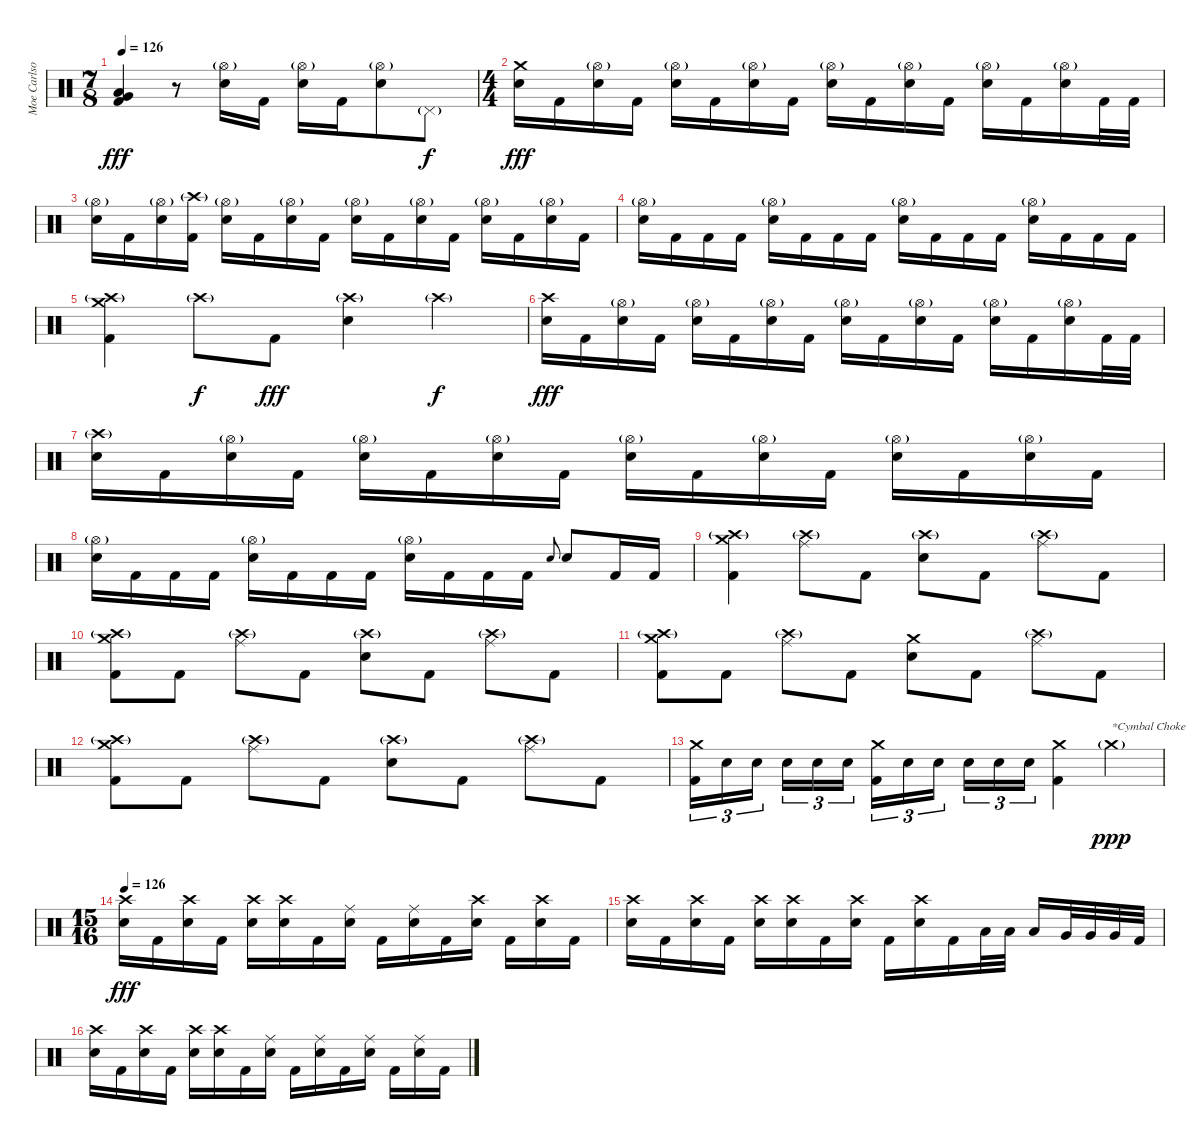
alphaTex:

\track ("Moe Carlson" "Moe Carlso") {instrument percussion}
\staff {score}
\articulation defaults
\ts (7 8)
\tempo 126
\clef neutral
\ks c
("Very Low Tom (hit)" "Low Floor Tom (hit)" "Kick (hit) 2").4{dy fff} r.8 ("Hi-Hat (open)"{g} "Electric Snare (hit)").16 "Kick (hit) 2".16 ("Hi-Hat (open)"{g} "Electric Snare (hit)").16 "Kick (hit) 2".16 ("Hi-Hat (open)"{g} "Electric Snare (hit)").8 "Pedal Hi-Hat (hit)"{g}.8{dy f} |
\ts (4 4)
("Crash medium (hit)" "Electric Snare (hit)").16{dy fff} "Kick (hit) 2".16 ("Hi-Hat (open)"{g} "Electric Snare (hit)").16 "Kick (hit) 2".16 ("Hi-Hat (open)"{g} "Electric Snare (hit)").16 "Kick (hit) 2".16 ("Hi-Hat (open)"{g} "Electric Snare (hit)").16 "Kick (hit) 2".16 ("Hi-Hat (open)"{g} "Electric Snare (hit)").16 "Kick (hit) 2".16 ("Hi-Hat (open)"{g} "Electric Snare (hit)").16 "Kick (hit) 2".16 ("Hi-Hat (open)"{g} "Electric Snare (hit)").16 "Kick (hit) 2".16 ("Hi-Hat (open)"{g} "Electric Snare (hit)").16 "Kick (hit) 2".32 "Kick (hit) 2".32 |
("Hi-Hat (open)"{g} "Electric Snare (hit)").16 "Kick (hit) 2".16 ("Hi-Hat (open)"{g} "Electric Snare (hit)").16 ("Crash high (hit)"{g} "Kick (hit) 2").16 ("Hi-Hat (open)"{g} "Electric Snare (hit)").16 "Kick (hit) 2".16 ("Hi-Hat (open)"{g} "Electric Snare (hit)").16 "Kick (hit) 2".16 ("Hi-Hat (open)"{g} "Electric Snare (hit)").16 "Kick (hit) 2".16 ("Hi-Hat (open)"{g} "Electric Snare (hit)").16 "Kick (hit) 2".16 ("Hi-Hat (open)"{g} "Electric Snare (hit)").16 "Kick (hit) 2".16 ("Hi-Hat (open)"{g} "Electric Snare (hit)").16 "Kick (hit) 2".16 |
("Hi-Hat (open)"{g} "Electric Snare (hit)").16 "Kick (hit) 2".16 "Kick (hit) 2".16 "Kick (hit) 2".16 ("Hi-Hat (open)"{g} "Electric Snare (hit)").16 "Kick (hit) 2".16 "Kick (hit) 2".16 "Kick (hit) 2".16 ("Hi-Hat (open)"{g} "Electric Snare (hit)").16 "Kick (hit) 2".16 "Kick (hit) 2".16 "Kick (hit) 2".16 ("Hi-Hat (open)"{g} "Electric Snare (hit)").16 "Kick (hit) 2".16 "Kick (hit) 2".16 "Kick (hit) 2".16 |
("Crash high (hit)"{g} "Crash medium (hit)" "Kick (hit) 2").4 "Crash high (hit)"{g}.8{dy f} "Kick (hit) 2".8{dy fff} ("Crash high (hit)"{g} "Electric Snare (hit)").4 "Crash high (hit)"{g}.4{dy f} |
("Crash high (hit)" "Electric Snare (hit)").16{dy fff} "Kick (hit) 2".16 ("Hi-Hat (open)"{g} "Electric Snare (hit)").16 "Kick (hit) 2".16 ("Hi-Hat (open)"{g} "Electric Snare (hit)").16 "Kick (hit) 2".16 ("Hi-Hat (open)"{g} "Electric Snare (hit)").16 "Kick (hit) 2".16 ("Hi-Hat (open)"{g} "Electric Snare (hit)").16 "Kick (hit) 2".16 ("Hi-Hat (open)"{g} "Electric Snare (hit)").16 "Kick (hit) 2".16 ("Hi-Hat (open)"{g} "Electric Snare (hit)").16 "Kick (hit) 2".16 ("Hi-Hat (open)"{g} "Electric Snare (hit)").16 "Kick (hit) 2".32 "Kick (hit) 2".32 |
("Crash high (hit)"{g} "Electric Snare (hit)").16 "Kick (hit) 2".16 ("Hi-Hat (open)"{g} "Electric Snare (hit)").16 "Kick (hit) 2".16 ("Hi-Hat (open)"{g} "Electric Snare (hit)").16 "Kick (hit) 2".16 ("Hi-Hat (open)"{g} "Electric Snare (hit)").16 "Kick (hit) 2".16 ("Hi-Hat (open)"{g} "Electric Snare (hit)").16 "Kick (hit) 2".16 ("Hi-Hat (open)"{g} "Electric Snare (hit)").16 "Kick (hit) 2".16 ("Hi-Hat (open)"{g} "Electric Snare (hit)").16 "Kick (hit) 2".16 ("Hi-Hat (open)"{g} "Electric Snare (hit)").16 "Kick (hit) 2".16 |
("Hi-Hat (open)"{g} "Electric Snare (hit)").16 "Kick (hit) 2".16 "Kick (hit) 2".16 "Kick (hit) 2".16 ("Hi-Hat (open)"{g} "Electric Snare (hit)").16 "Kick (hit) 2".16 "Kick (hit) 2".16 "Kick (hit) 2".16 ("Hi-Hat (open)"{g} "Electric Snare (hit)").16 "Kick (hit) 2".16 "Kick (hit) 2".16 "Kick (hit) 2".16 "Electric Snare (hit)".8{gr onbeat} "Electric Snare (hit)".8 "Kick (hit) 2".16 "Kick (hit) 2".16 |
("Crash high (hit)"{g} "Crash medium (hit)" "Kick (hit) 2").4 ("Crash high (hit)"{g} "Ride (middle)").8 "Kick (hit) 2".8 ("Crash high (hit)"{g} "Electric Snare (hit)").8 "Kick (hit) 2".8 ("Crash high (hit)"{g} "Ride (middle)").8 "Kick (hit) 2".8 |
("Crash high (hit)"{g} "Crash medium (hit)" "Kick (hit) 2").8 "Kick (hit) 2".8 ("Crash high (hit)"{g} "Ride (middle)").8 "Kick (hit) 2".8 ("Crash high (hit)"{g} "Electric Snare (hit)").8 "Kick (hit) 2".8 ("Crash high (hit)"{g} "Ride (middle)").8 "Kick (hit) 2".8 |
("Crash high (hit)"{g} "Crash medium (hit)" "Kick (hit) 2").8 "Kick (hit) 2".8 ("Crash high (hit)"{g} "Ride (middle)").8 "Kick (hit) 2".8 ("Crash medium (hit)" "Electric Snare (hit)").8 "Kick (hit) 2".8 ("Crash high (hit)"{g} "Ride (middle)").8 "Kick (hit) 2".8 |
("Crash high (hit)"{g} "Crash medium (hit)" "Kick (hit) 2").8 "Kick (hit) 2".8 ("Crash high (hit)"{g} "Ride (middle)").8 "Kick (hit) 2".8 ("Crash high (hit)"{g} "Electric Snare (hit)").8 "Kick (hit) 2".8 ("Crash high (hit)"{g} "Ride (middle)").8 "Kick (hit) 2".8 |
("Crash medium (hit)" "Kick (hit) 2").16{tu (3 2)} "Electric Snare (hit)".16{tu (3 2)} "Electric Snare (hit)".16{tu (3 2) beam splitsecondary} "Electric Snare (hit)".16{tu (3 2)} "Electric Snare (hit)".16{tu (3 2)} "Electric Snare (hit)".16{tu (3 2)} ("Crash medium (hit)" "Kick (hit) 2").16{tu (3 2)} "Electric Snare (hit)".16{tu (3 2)} "Electric Snare (hit)".16{tu (3 2) beam splitsecondary} "Electric Snare (hit)".16{tu (3 2)} "Electric Snare (hit)".16{tu (3 2)} "Electric Snare (hit)".16{tu (3 2)} ("Crash medium (hit)" "Kick (hit) 2").4 "Crash medium (hit)"{g}.4{txt "*Cymbal Choke" dy ppp} |
\ts (15 16)
\tempo 126
("Crash high (hit)" "Electric Snare (hit)").16{dy fff} "Kick (hit) 2".16 ("Crash high (hit)" "Electric Snare (hit)").16 "Kick (hit) 2".16 ("Crash high (hit)" "Electric Snare (hit)").16 ("Crash high (hit)" "Electric Snare (hit)").16 "Kick (hit) 2".16 ("Ride (middle)" "Electric Snare (hit)").16 "Kick (hit) 2".16 ("Ride (middle)" "Electric Snare (hit)").16 "Kick (hit) 2".16 ("Crash high (hit)" "Electric Snare (hit)").16 "Kick (hit) 2".16 ("Crash high (hit)" "Electric Snare (hit)").16 "Kick (hit) 2".16 |
("Crash high (hit)" "Electric Snare (hit)").16 "Kick (hit) 2".16 ("Crash high (hit)" "Electric Snare (hit)").16 "Kick (hit) 2".16 ("Crash high (hit)" "Electric Snare (hit)").16 ("Crash high (hit)" "Electric Snare (hit)").16 "Kick (hit) 2".16 ("Crash high (hit)" "Electric Snare (hit)").16 "Kick (hit) 2".16 ("Crash high (hit)" "Electric Snare (hit)").16 "Kick (hit) 2".16 "Low Tom (hit)".32 "Low Tom (hit)".32 "Low Tom (hit)".16 "Very Low Tom (hit)".32 "Very Low Tom (hit)".32 "Very Low Tom (hit)".32 "Kick (hit) 2".32 |
("Crash high (hit)" "Electric Snare (hit)").16 "Kick (hit) 2".16 ("Crash high (hit)" "Electric Snare (hit)").16 "Kick (hit) 2".16 ("Crash high (hit)" "Electric Snare (hit)").16 ("Crash high (hit)" "Electric Snare (hit)").16 "Kick (hit) 2".16 ("Ride (middle)" "Electric Snare (hit)").16 "Kick (hit) 2".16 ("Ride (middle)" "Electric Snare (hit)").16 "Kick (hit) 2".16 ("Ride (middle)" "Electric Snare (hit)").16 "Kick (hit) 2".16 ("Ride (middle)" "Electric Snare (hit)").16 "Kick (hit) 2".16
